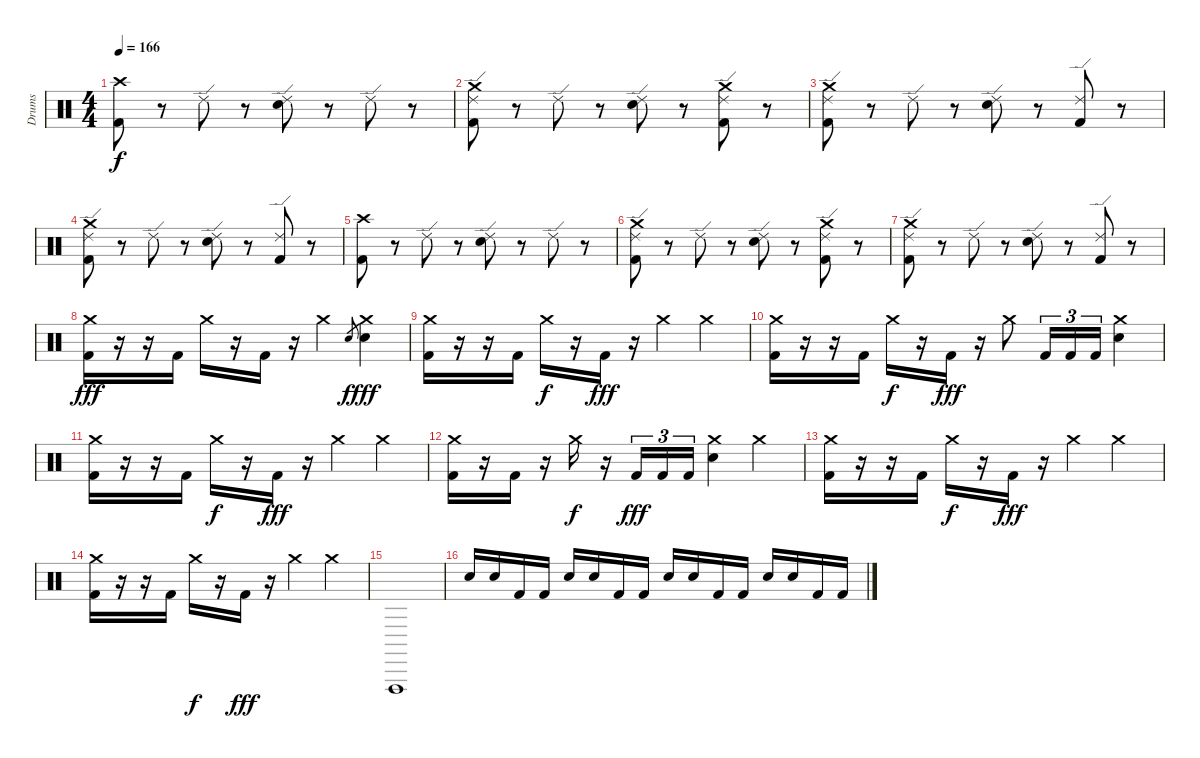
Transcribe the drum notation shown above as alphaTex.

\track ("Drums" "Drums") {instrument percussion}
\staff {score}
\articulation defaults
\ts (4 4)
\tempo 166
\clef neutral
\ks c
("Crash high (hit)" "Kick (hit) 2").8{dy f} r.8 "Ride (edge) 2".8 r.8 ("Ride (edge) 2" "Snare (hit) 2").8 r.8 "Ride (edge) 2".8 r.8 |
("Crash medium (hit)" "Ride (edge) 2" "Kick (hit) 2").8 r.8 "Ride (edge) 2".8 r.8 ("Ride (edge) 2" "Snare (hit) 2").8 r.8 ("Crash medium (hit)" "Ride (edge) 2" "Kick (hit) 2").8 r.8 |
("Crash medium (hit)" "Ride (edge) 2" "Kick (hit) 2").8 r.8 "Ride (edge) 2".8 r.8 ("Ride (edge) 2" "Snare (hit) 2").8 r.8 ("Ride (edge) 2" "Kick (hit) 2").8 r.8 |
("Crash medium (hit)" "Ride (edge) 2" "Kick (hit) 2").8 r.8 "Ride (edge) 2".8 r.8 ("Ride (edge) 2" "Snare (hit) 2").8 r.8 ("Ride (edge) 2" "Kick (hit) 2").8 r.8 |
("Crash high (hit)" "Kick (hit) 2").8 r.8 "Ride (edge) 2".8 r.8 ("Ride (edge) 2" "Snare (hit) 2").8 r.8 "Ride (edge) 2".8 r.8 |
("Crash medium (hit)" "Ride (edge) 2" "Kick (hit) 2").8 r.8 "Ride (edge) 2".8 r.8 ("Ride (edge) 2" "Snare (hit) 2").8 r.8 ("Crash medium (hit)" "Ride (edge) 2" "Kick (hit) 2").8 r.8 |
("Crash medium (hit)" "Ride (edge) 2" "Kick (hit) 2").8 r.8 "Ride (edge) 2".8 r.8 ("Ride (edge) 2" "Snare (hit) 2").8 r.8 ("Ride (edge) 2" "Kick (hit) 2").8 r.8 |
("Crash medium (hit)" "Kick (hit) 2").16{dy fff} r.16 r.16 "Kick (hit) 2".16 "Crash medium (hit)".16 r.16 "Kick (hit) 2".16 r.16 "Crash medium (hit)".4 "Snare (hit) 2".8{gr dy f} ("Crash medium (hit)" "Snare (hit) 2").4{dy fff} |
("Crash medium (hit)" "Kick (hit) 2").16 r.16 r.16 "Kick (hit) 2".16 "Crash medium (hit)".16{dy f} r.16 "Kick (hit) 2".16{dy fff} r.16 "Crash medium (hit)".4 "Crash medium (hit)".4 |
("Crash medium (hit)" "Kick (hit) 2").16 r.16 r.16 "Kick (hit) 2".16 "Crash medium (hit)".16{dy f} r.16 "Kick (hit) 2".16{dy fff} r.16 "Crash medium (hit)".8 "Kick (hit) 2".16{tu (3 2)} "Kick (hit) 2".16{tu (3 2)} "Kick (hit) 2".16{tu (3 2)} ("Crash medium (hit)" "Snare (hit) 2").4 |
("Crash medium (hit)" "Kick (hit) 2").16 r.16 r.16 "Kick (hit) 2".16 "Crash medium (hit)".16{dy f} r.16 "Kick (hit) 2".16{dy fff} r.16 "Crash medium (hit)".4 "Crash medium (hit)".4 |
("Crash medium (hit)" "Kick (hit) 2").16 r.16 "Kick (hit) 2".16 r.16 "Crash medium (hit)".16{dy f} r.16 "Kick (hit) 2".16{tu (3 2) dy fff} "Kick (hit) 2".16{tu (3 2)} "Kick (hit) 2".16{tu (3 2)} ("Crash medium (hit)" "Snare (hit) 2").4 "Crash medium (hit)".4 |
("Crash medium (hit)" "Kick (hit) 2").16 r.16 r.16 "Kick (hit) 2".16 "Crash medium (hit)".16{dy f} r.16 "Kick (hit) 2".16{dy fff} r.16 "Crash medium (hit)".4 "Crash medium (hit)".4 |
("Crash medium (hit)" "Kick (hit) 2").16 r.16 r.16 "Kick (hit) 2".16 "Crash medium (hit)".16{dy f} r.16 "Kick (hit) 2".16{dy fff} r.16 "Crash medium (hit)".4 "Crash medium (hit)".4 |
"Vibraslap (hit)".1 |
"Snare (hit) 2".16 "Snare (hit) 2".16 "Kick (hit) 2".16 "Kick (hit) 2".16 "Snare (hit) 2".16 "Snare (hit) 2".16 "Kick (hit) 2".16 "Kick (hit) 2".16 "Snare (hit) 2".16 "Snare (hit) 2".16 "Kick (hit) 2".16 "Kick (hit) 2".16 "Snare (hit) 2".16 "Snare (hit) 2".16 "Kick (hit) 2".16 "Kick (hit) 2".16
